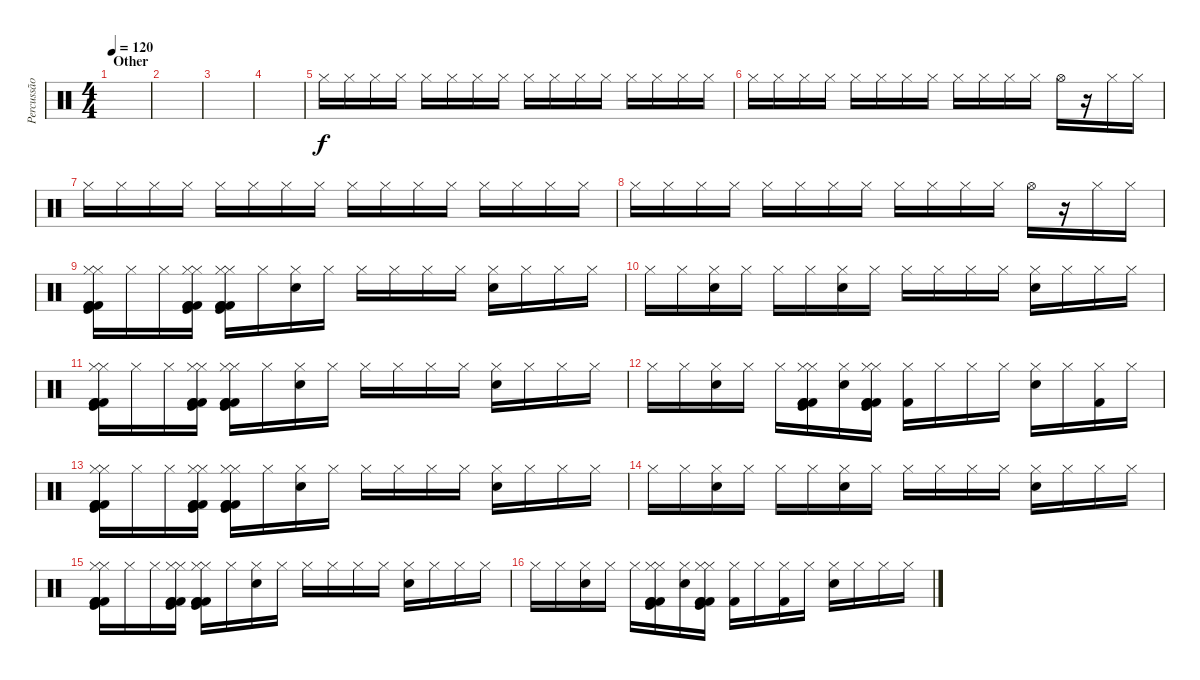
\track ("Percussão" "Percussão") {instrument percussion}
\staff {score}
\articulation defaults
\ts (4 4)
\section ("" "Other")
\tempo 120
\clef neutral
\ks c
|
|
|
|
"Hi-Hat (closed)".16 "Hi-Hat (closed)".16 "Hi-Hat (closed)".16 "Hi-Hat (closed)".16 "Hi-Hat (closed)".16 "Hi-Hat (closed)".16 "Hi-Hat (closed)".16 "Hi-Hat (closed)".16 "Hi-Hat (closed)".16 "Hi-Hat (closed)".16 "Hi-Hat (closed)".16 "Hi-Hat (closed)".16 "Hi-Hat (closed)".16 "Hi-Hat (closed)".16 "Hi-Hat (closed)".16 "Hi-Hat (closed)".16 |
"Hi-Hat (closed)".16 "Hi-Hat (closed)".16 "Hi-Hat (closed)".16 "Hi-Hat (closed)".16 "Hi-Hat (closed)".16 "Hi-Hat (closed)".16 "Hi-Hat (closed)".16 "Hi-Hat (closed)".16 "Hi-Hat (closed)".16 "Hi-Hat (closed)".16 "Hi-Hat (closed)".16 "Hi-Hat (closed)".16 "Hi-Hat (open)".16 r.16 "Hi-Hat (closed)".16 "Hi-Hat (closed)".16 |
"Hi-Hat (closed)".16 "Hi-Hat (closed)".16 "Hi-Hat (closed)".16 "Hi-Hat (closed)".16 "Hi-Hat (closed)".16 "Hi-Hat (closed)".16 "Hi-Hat (closed)".16 "Hi-Hat (closed)".16 "Hi-Hat (closed)".16 "Hi-Hat (closed)".16 "Hi-Hat (closed)".16 "Hi-Hat (closed)".16 "Hi-Hat (closed)".16 "Hi-Hat (closed)".16 "Hi-Hat (closed)".16 "Hi-Hat (closed)".16 |
"Hi-Hat (closed)".16 "Hi-Hat (closed)".16 "Hi-Hat (closed)".16 "Hi-Hat (closed)".16 "Hi-Hat (closed)".16 "Hi-Hat (closed)".16 "Hi-Hat (closed)".16 "Hi-Hat (closed)".16 "Hi-Hat (closed)".16 "Hi-Hat (closed)".16 "Hi-Hat (closed)".16 "Hi-Hat (closed)".16 "Hi-Hat (open)".16 r.16 "Hi-Hat (closed)".16 "Hi-Hat (closed)".16 |
("Hi-Hat (closed)" "Kick (hit)" "Kick (hit) 2" "Kick (hit) 2" "Hi-Hat (closed)" "Kick (hit) 2").16 "Hi-Hat (closed)".16 "Hi-Hat (closed)".16 ("Hi-Hat (closed)" "Kick (hit)" "Kick (hit) 2" "Kick (hit) 2" "Hi-Hat (closed)" "Kick (hit) 2").16 ("Hi-Hat (closed)" "Kick (hit)" "Kick (hit) 2" "Kick (hit) 2" "Hi-Hat (closed)" "Kick (hit) 2").16 "Hi-Hat (closed)".16 ("Electric Snare (hit)" "Hi-Hat (closed)").16 "Hi-Hat (closed)".16 "Hi-Hat (closed)".16 "Hi-Hat (closed)".16 "Hi-Hat (closed)".16 "Hi-Hat (closed)".16 ("Electric Snare (hit)" "Hi-Hat (closed)").16 "Hi-Hat (closed)".16 "Hi-Hat (closed)".16 "Hi-Hat (closed)".16 |
"Hi-Hat (closed)".16 "Hi-Hat (closed)".16 ("Electric Snare (hit)" "Hi-Hat (closed)").16 "Hi-Hat (closed)".16 "Hi-Hat (closed)".16 "Hi-Hat (closed)".16 ("Electric Snare (hit)" "Hi-Hat (closed)").16 "Hi-Hat (closed)".16 "Hi-Hat (closed)".16 "Hi-Hat (closed)".16 "Hi-Hat (closed)".16 "Hi-Hat (closed)".16 ("Electric Snare (hit)" "Hi-Hat (closed)").16 "Hi-Hat (closed)".16 "Hi-Hat (closed)".16 "Hi-Hat (closed)".16 |
("Hi-Hat (closed)" "Kick (hit)" "Kick (hit) 2" "Kick (hit) 2" "Hi-Hat (closed)" "Kick (hit) 2").16 "Hi-Hat (closed)".16 "Hi-Hat (closed)".16 ("Hi-Hat (closed)" "Kick (hit)" "Kick (hit) 2" "Kick (hit) 2" "Hi-Hat (closed)" "Kick (hit) 2").16 ("Hi-Hat (closed)" "Kick (hit)" "Kick (hit) 2" "Kick (hit) 2" "Hi-Hat (closed)" "Kick (hit) 2").16 "Hi-Hat (closed)".16 ("Electric Snare (hit)" "Hi-Hat (closed)").16 "Hi-Hat (closed)".16 "Hi-Hat (closed)".16 "Hi-Hat (closed)".16 "Hi-Hat (closed)".16 "Hi-Hat (closed)".16 ("Electric Snare (hit)" "Hi-Hat (closed)").16 "Hi-Hat (closed)".16 "Hi-Hat (closed)".16 "Hi-Hat (closed)".16 |
"Hi-Hat (closed)".16 "Hi-Hat (closed)".16 ("Electric Snare (hit)" "Hi-Hat (closed)").16 "Hi-Hat (closed)".16 "Hi-Hat (closed)".16 ("Hi-Hat (closed)" "Kick (hit)" "Kick (hit) 2" "Kick (hit) 2" "Hi-Hat (closed)" "Kick (hit) 2").16 ("Electric Snare (hit)" "Hi-Hat (closed)").16 ("Hi-Hat (closed)" "Kick (hit)" "Kick (hit) 2" "Kick (hit) 2" "Hi-Hat (closed)" "Kick (hit) 2").16 ("Hi-Hat (closed)" "Kick (hit) 2").16 "Hi-Hat (closed)".16 "Hi-Hat (closed)".16 "Hi-Hat (closed)".16 ("Electric Snare (hit)" "Hi-Hat (closed)").16 "Hi-Hat (closed)".16 ("Hi-Hat (closed)" "Kick (hit) 2").16 "Hi-Hat (closed)".16 |
("Hi-Hat (closed)" "Kick (hit)" "Kick (hit) 2" "Kick (hit) 2" "Hi-Hat (closed)" "Kick (hit) 2").16 "Hi-Hat (closed)".16 "Hi-Hat (closed)".16 ("Hi-Hat (closed)" "Kick (hit)" "Kick (hit) 2" "Kick (hit) 2" "Hi-Hat (closed)" "Kick (hit) 2").16 ("Hi-Hat (closed)" "Kick (hit)" "Kick (hit) 2" "Kick (hit) 2" "Hi-Hat (closed)" "Kick (hit) 2").16 "Hi-Hat (closed)".16 ("Electric Snare (hit)" "Hi-Hat (closed)").16 "Hi-Hat (closed)".16 "Hi-Hat (closed)".16 "Hi-Hat (closed)".16 "Hi-Hat (closed)".16 "Hi-Hat (closed)".16 ("Electric Snare (hit)" "Hi-Hat (closed)").16 "Hi-Hat (closed)".16 "Hi-Hat (closed)".16 "Hi-Hat (closed)".16 |
"Hi-Hat (closed)".16 "Hi-Hat (closed)".16 ("Electric Snare (hit)" "Hi-Hat (closed)").16 "Hi-Hat (closed)".16 "Hi-Hat (closed)".16 "Hi-Hat (closed)".16 ("Electric Snare (hit)" "Hi-Hat (closed)").16 "Hi-Hat (closed)".16 "Hi-Hat (closed)".16 "Hi-Hat (closed)".16 "Hi-Hat (closed)".16 "Hi-Hat (closed)".16 ("Electric Snare (hit)" "Hi-Hat (closed)").16 "Hi-Hat (closed)".16 "Hi-Hat (closed)".16 "Hi-Hat (closed)".16 |
("Hi-Hat (closed)" "Kick (hit)" "Kick (hit) 2" "Kick (hit) 2" "Hi-Hat (closed)" "Kick (hit) 2").16 "Hi-Hat (closed)".16 "Hi-Hat (closed)".16 ("Hi-Hat (closed)" "Kick (hit)" "Kick (hit) 2" "Kick (hit) 2" "Hi-Hat (closed)" "Kick (hit) 2").16 ("Hi-Hat (closed)" "Kick (hit)" "Kick (hit) 2" "Kick (hit) 2" "Hi-Hat (closed)" "Kick (hit) 2").16 "Hi-Hat (closed)".16 ("Electric Snare (hit)" "Hi-Hat (closed)").16 "Hi-Hat (closed)".16 "Hi-Hat (closed)".16 "Hi-Hat (closed)".16 "Hi-Hat (closed)".16 "Hi-Hat (closed)".16 ("Electric Snare (hit)" "Hi-Hat (closed)").16 "Hi-Hat (closed)".16 "Hi-Hat (closed)".16 "Hi-Hat (closed)".16 |
"Hi-Hat (closed)".16 "Hi-Hat (closed)".16 ("Electric Snare (hit)" "Hi-Hat (closed)").16 "Hi-Hat (closed)".16 "Hi-Hat (closed)".16 ("Hi-Hat (closed)" "Kick (hit)" "Kick (hit) 2" "Kick (hit) 2" "Hi-Hat (closed)" "Kick (hit) 2").16 ("Electric Snare (hit)" "Hi-Hat (closed)").16 ("Hi-Hat (closed)" "Kick (hit)" "Kick (hit) 2" "Kick (hit) 2" "Hi-Hat (closed)" "Kick (hit) 2").16 ("Hi-Hat (closed)" "Kick (hit) 2").16 "Hi-Hat (closed)".16 ("Hi-Hat (closed)" "Kick (hit) 2").16 "Hi-Hat (closed)".16 ("Electric Snare (hit)" "Hi-Hat (closed)").16 "Hi-Hat (closed)".16 "Hi-Hat (closed)".16 "Hi-Hat (closed)".16
